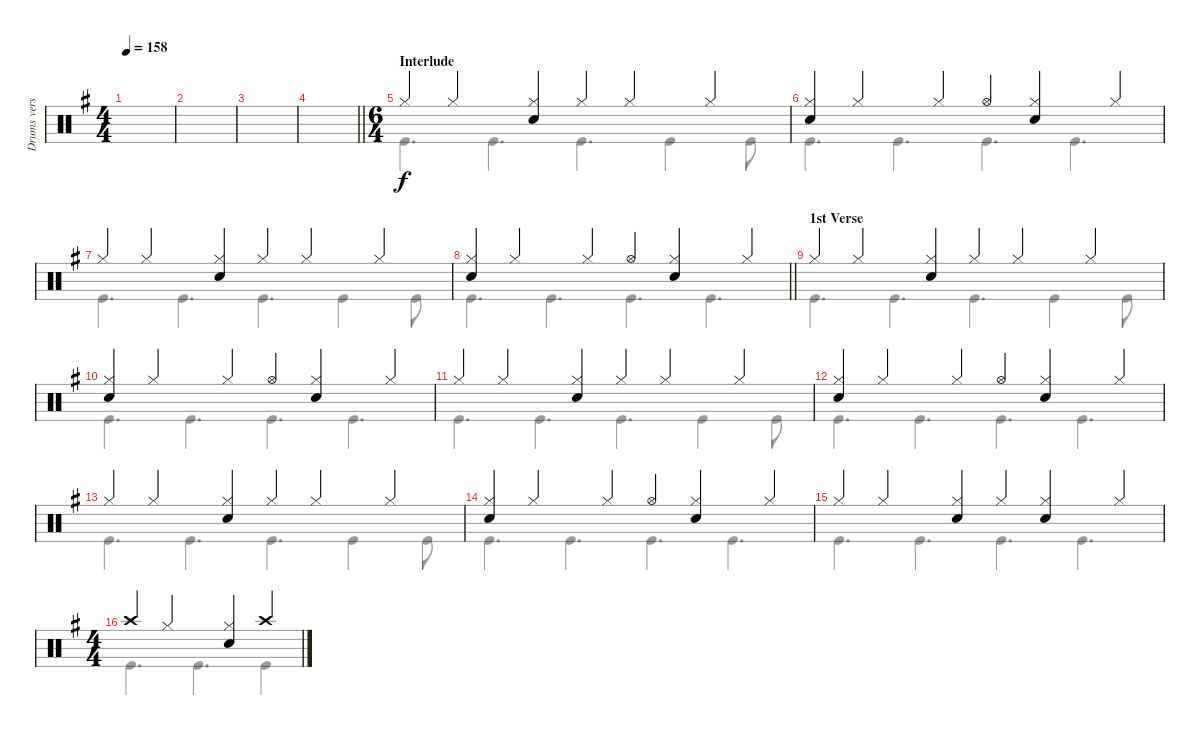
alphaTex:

\track ("Drums verse-support" "Drums vers") {instrument percussion}
\staff {score}
\articulation defaults
\voice
\ts (4 4)
\tempo 158
\clef neutral
\ks eminor
|
|
|
\barLineRight lightlight
|
\ts (6 4)
\section ("" "Interlude")
"Hi-Hat (closed)".4 "Hi-Hat (closed)".4 ("Hi-Hat (closed)" "Electric Snare (hit)").4 "Hi-Hat (closed)".4 "Hi-Hat (closed)".4 "Hi-Hat (closed)".4 |
("Hi-Hat (closed)" "Electric Snare (hit)").4 "Hi-Hat (closed)".4 "Hi-Hat (closed)".4 "Hi-Hat (open)".4 ("Hi-Hat (closed)" "Electric Snare (hit)").4 "Hi-Hat (closed)".4 |
"Hi-Hat (closed)".4 "Hi-Hat (closed)".4 ("Hi-Hat (closed)" "Electric Snare (hit)").4 "Hi-Hat (closed)".4 "Hi-Hat (closed)".4 "Hi-Hat (closed)".4 |
\barLineRight lightlight
("Hi-Hat (closed)" "Electric Snare (hit)").4 "Hi-Hat (closed)".4 "Hi-Hat (closed)".4 "Hi-Hat (open)".4 ("Hi-Hat (closed)" "Electric Snare (hit)").4 "Hi-Hat (closed)".4 |
\section ("" "1st Verse")
"Hi-Hat (closed)".4 "Hi-Hat (closed)".4 ("Hi-Hat (closed)" "Electric Snare (hit)").4 "Hi-Hat (closed)".4 "Hi-Hat (closed)".4 "Hi-Hat (closed)".4 |
("Hi-Hat (closed)" "Electric Snare (hit)").4 "Hi-Hat (closed)".4 "Hi-Hat (closed)".4 "Hi-Hat (open)".4 ("Hi-Hat (closed)" "Electric Snare (hit)").4 "Hi-Hat (closed)".4 |
"Hi-Hat (closed)".4 "Hi-Hat (closed)".4 ("Hi-Hat (closed)" "Electric Snare (hit)").4 "Hi-Hat (closed)".4 "Hi-Hat (closed)".4 "Hi-Hat (closed)".4 |
("Hi-Hat (closed)" "Electric Snare (hit)").4 "Hi-Hat (closed)".4 "Hi-Hat (closed)".4 "Hi-Hat (open)".4 ("Hi-Hat (closed)" "Electric Snare (hit)").4 "Hi-Hat (closed)".4 |
"Hi-Hat (closed)".4 "Hi-Hat (closed)".4 ("Hi-Hat (closed)" "Electric Snare (hit)").4 "Hi-Hat (closed)".4 "Hi-Hat (closed)".4 "Hi-Hat (closed)".4 |
("Hi-Hat (closed)" "Electric Snare (hit)").4 "Hi-Hat (closed)".4 "Hi-Hat (closed)".4 "Hi-Hat (open)".4 ("Hi-Hat (closed)" "Electric Snare (hit)").4 "Hi-Hat (closed)".4 |
"Hi-Hat (closed)".4 "Hi-Hat (closed)".4 ("Hi-Hat (closed)" "Electric Snare (hit)").4 "Hi-Hat (closed)".4 ("Hi-Hat (closed)" "Electric Snare (hit)").4 "Hi-Hat (closed)".4 |
\ts (4 4)
"Crash high (hit)".4 "Hi-Hat (closed)".4 ("Hi-Hat (closed)" "Electric Snare (hit)").4 "Crash high (hit)".4
\voice
\clef neutral
\ottava regular
\simile none
\ks eminor
|
|
|
\barLineRight lightlight
|
"Kick (hit)".4{d} "Kick (hit)".4{d} "Kick (hit)".4{d} "Kick (hit)".4 "Kick (hit)".8 |
"Kick (hit)".4{d} "Kick (hit)".4{d} "Kick (hit)".4{d} "Kick (hit)".4{d} |
"Kick (hit)".4{d} "Kick (hit)".4{d} "Kick (hit)".4{d} "Kick (hit)".4 "Kick (hit)".8 |
\barLineRight lightlight "Kick (hit)".4{d} "Kick (hit)".4{d} "Kick (hit)".4{d} "Kick (hit)".4{d}
|
"Kick (hit)".4{d} "Kick (hit)".4{d} "Kick (hit)".4{d} "Kick (hit)".4 "Kick (hit)".8 |
"Kick (hit)".4{d} "Kick (hit)".4{d} "Kick (hit)".4{d} "Kick (hit)".4{d} |
"Kick (hit)".4{d} "Kick (hit)".4{d} "Kick (hit)".4{d} "Kick (hit)".4 "Kick (hit)".8 |
"Kick (hit)".4{d} "Kick (hit)".4{d} "Kick (hit)".4{d} "Kick (hit)".4{d} |
"Kick (hit)".4{d} "Kick (hit)".4{d} "Kick (hit)".4{d} "Kick (hit)".4 "Kick (hit)".8 |
"Kick (hit)".4{d} "Kick (hit)".4{d} "Kick (hit)".4{d} "Kick (hit)".4{d} |
"Kick (hit)".4{d} "Kick (hit)".4{d} "Kick (hit)".4{d} "Kick (hit)".4{d} |
"Kick (hit)".4{d} "Kick (hit)".4{d} "Kick (hit)".4
